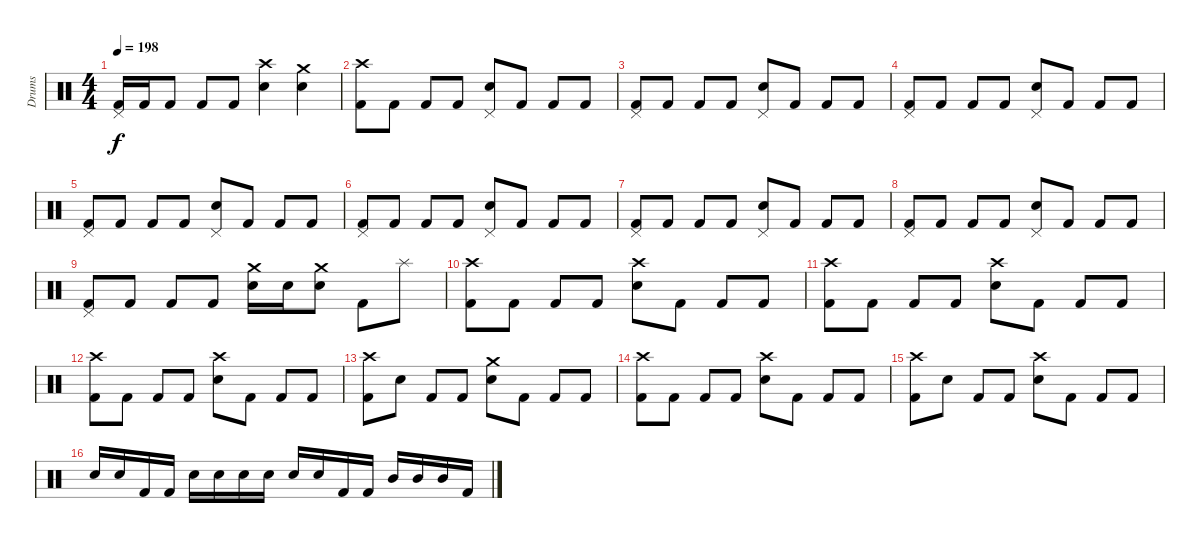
\track ("Drums" "Drums") {instrument percussion}
\staff {score}
\articulation defaults
\ts (4 4)
\tempo 198
\clef neutral
\ks c
("Pedal Hi-Hat (hit)" "Kick (hit) 2").16{dy f} "Kick (hit) 2".16 "Kick (hit) 2".8 "Kick (hit) 2".8 "Kick (hit) 2".8 ("Crash high (hit)" "Electric Snare (hit)").4 ("Crash medium (hit)" "Electric Snare (hit)").4 |
("Crash high (hit)" "Kick (hit) 2").8 "Kick (hit) 2".8 "Kick (hit) 2".8 "Kick (hit) 2".8 ("Pedal Hi-Hat (hit)" "Electric Snare (hit)").8 "Kick (hit) 2".8 "Kick (hit) 2".8 "Kick (hit) 2".8 |
("Pedal Hi-Hat (hit)" "Kick (hit) 2").8 "Kick (hit) 2".8 "Kick (hit) 2".8 "Kick (hit) 2".8 ("Pedal Hi-Hat (hit)" "Electric Snare (hit)").8 "Kick (hit) 2".8 "Kick (hit) 2".8 "Kick (hit) 2".8 |
("Pedal Hi-Hat (hit)" "Kick (hit) 2").8 "Kick (hit) 2".8 "Kick (hit) 2".8 "Kick (hit) 2".8 ("Pedal Hi-Hat (hit)" "Electric Snare (hit)").8 "Kick (hit) 2".8 "Kick (hit) 2".8 "Kick (hit) 2".8 |
("Pedal Hi-Hat (hit)" "Kick (hit) 2").8 "Kick (hit) 2".8 "Kick (hit) 2".8 "Kick (hit) 2".8 ("Pedal Hi-Hat (hit)" "Electric Snare (hit)").8 "Kick (hit) 2".8 "Kick (hit) 2".8 "Kick (hit) 2".8 |
("Pedal Hi-Hat (hit)" "Kick (hit) 2").8 "Kick (hit) 2".8 "Kick (hit) 2".8 "Kick (hit) 2".8 ("Pedal Hi-Hat (hit)" "Electric Snare (hit)").8 "Kick (hit) 2".8 "Kick (hit) 2".8 "Kick (hit) 2".8 |
("Pedal Hi-Hat (hit)" "Kick (hit) 2").8 "Kick (hit) 2".8 "Kick (hit) 2".8 "Kick (hit) 2".8 ("Pedal Hi-Hat (hit)" "Electric Snare (hit)").8 "Kick (hit) 2".8 "Kick (hit) 2".8 "Kick (hit) 2".8 |
("Pedal Hi-Hat (hit)" "Kick (hit) 2").8 "Kick (hit) 2".8 "Kick (hit) 2".8 "Kick (hit) 2".8 ("Pedal Hi-Hat (hit)" "Electric Snare (hit)").8 "Kick (hit) 2".8 "Kick (hit) 2".8 "Kick (hit) 2".8 |
("Pedal Hi-Hat (hit)" "Kick (hit) 2").8 "Kick (hit) 2".8 "Kick (hit) 2".8 "Kick (hit) 2".8 ("Crash medium (hit)" "Electric Snare (hit)").16 "Electric Snare (hit)".16 ("Crash medium (hit)" "Electric Snare (hit)").8 "Kick (hit) 2".8 "Splash (hit)".8 |
("Crash high (hit)" "Kick (hit) 2").8 "Kick (hit) 2".8 "Kick (hit) 2".8 "Kick (hit) 2".8 ("Crash high (hit)" "Electric Snare (hit)").8 "Kick (hit) 2".8 "Kick (hit) 2".8 "Kick (hit) 2".8 |
("Crash high (hit)" "Kick (hit) 2").8 "Kick (hit) 2".8 "Kick (hit) 2".8 "Kick (hit) 2".8 ("Crash high (hit)" "Electric Snare (hit)").8 "Kick (hit) 2".8 "Kick (hit) 2".8 "Kick (hit) 2".8 |
("Crash high (hit)" "Kick (hit) 2").8 "Kick (hit) 2".8 "Kick (hit) 2".8 "Kick (hit) 2".8 ("Crash high (hit)" "Electric Snare (hit)").8 "Kick (hit) 2".8 "Kick (hit) 2".8 "Kick (hit) 2".8 |
("Crash high (hit)" "Kick (hit) 2").8 "Electric Snare (hit)".8 "Kick (hit) 2".8 "Kick (hit) 2".8 ("Crash medium (hit)" "Electric Snare (hit)").8 "Kick (hit) 2".8 "Kick (hit) 2".8 "Kick (hit) 2".8 |
("Crash high (hit)" "Kick (hit) 2").8 "Kick (hit) 2".8 "Kick (hit) 2".8 "Kick (hit) 2".8 ("Crash high (hit)" "Electric Snare (hit)").8 "Kick (hit) 2".8 "Kick (hit) 2".8 "Kick (hit) 2".8 |
("Crash high (hit)" "Kick (hit) 2").8 "Electric Snare (hit)".8 "Kick (hit) 2".8 "Kick (hit) 2".8 ("Crash high (hit)" "Electric Snare (hit)").8 "Kick (hit) 2".8 "Kick (hit) 2".8 "Kick (hit) 2".8 |
"Electric Snare (hit)".16 "Electric Snare (hit)".16 "Kick (hit) 2".16 "Kick (hit) 2".16 "Electric Snare (hit)".16 "Electric Snare (hit)".16 "Electric Snare (hit)".16 "Electric Snare (hit)".16 "Electric Snare (hit)".16 "Electric Snare (hit)".16 "Kick (hit) 2".16 "Kick (hit) 2".16 "Mid Tom (hit)".16 "Mid Tom (hit)".16 "Mid Tom (hit)".16 "Kick (hit) 2".16
